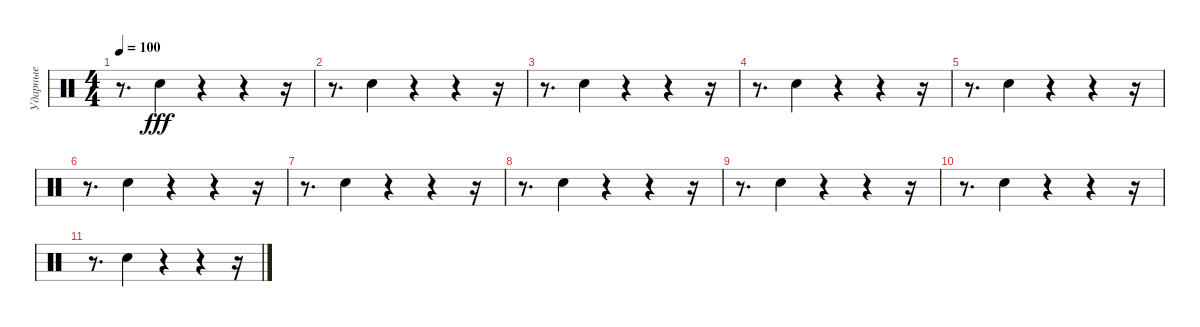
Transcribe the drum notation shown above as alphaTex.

\track ("Ударные" "Ударные") {instrument percussion}
\staff {score}
\articulation defaults
\ts (4 4)
\tempo 100
\clef neutral
\ks c
r.8{d dy fff} "Hand Clap (hit)".4 r.4 r.4 r.16 |
r.8{d} "Hand Clap (hit)".4 r.4 r.4 r.16 |
r.8{d} "Hand Clap (hit)".4 r.4 r.4 r.16 |
r.8{d} "Hand Clap (hit)".4 r.4 r.4 r.16 |
r.8{d} "Hand Clap (hit)".4 r.4 r.4 r.16 |
r.8{d} "Hand Clap (hit)".4 r.4 r.4 r.16 |
r.8{d} "Hand Clap (hit)".4 r.4 r.4 r.16 |
r.8{d} "Hand Clap (hit)".4 r.4 r.4 r.16 |
r.8{d} "Hand Clap (hit)".4 r.4 r.4 r.16 |
r.8{d} "Hand Clap (hit)".4 r.4 r.4 r.16 |
r.8{d} "Hand Clap (hit)".4 r.4 r.4 r.16
